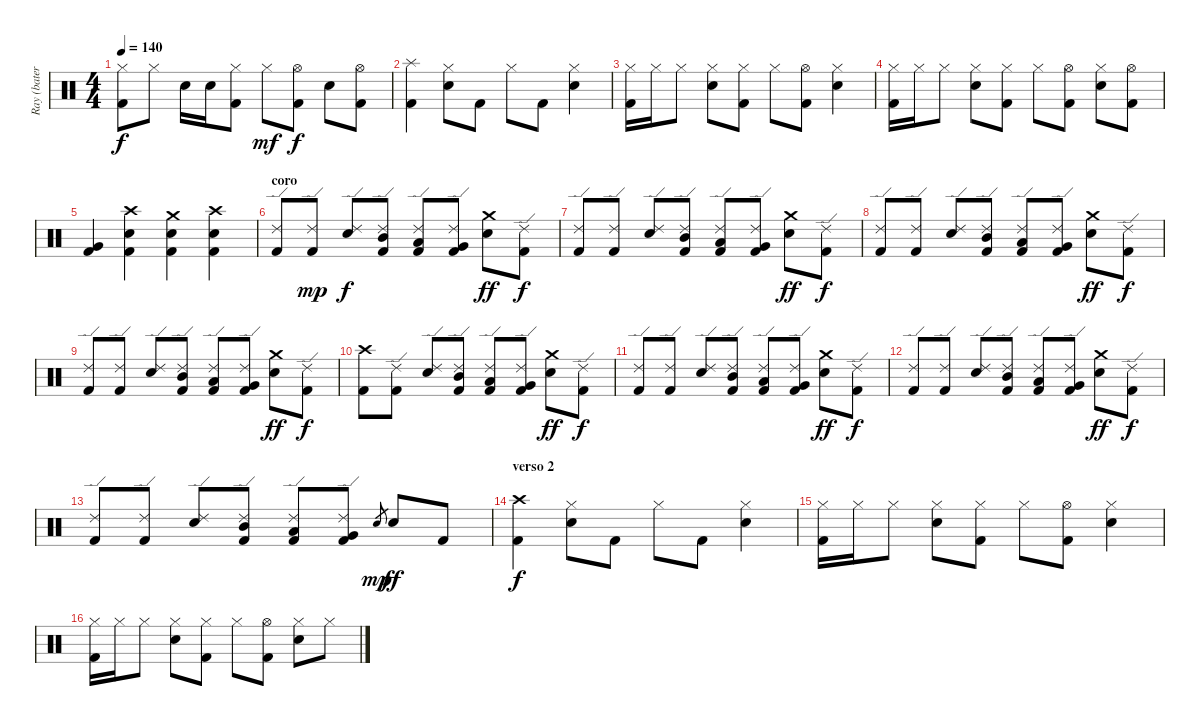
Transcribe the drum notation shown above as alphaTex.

\track ("Ray (batería)" "Ray (bater") {instrument percussion}
\staff {score}
\articulation defaults
\ts (4 4)
\tempo 140
\clef neutral
\ks c
("Hi-Hat (closed)" "Kick (hit) 2").8{dy f} "Hi-Hat (closed)".8 "Snare (hit) 2".16 "Snare (hit) 2".16 ("Hi-Hat (closed)" "Kick (hit) 2").8 "Hi-Hat (closed)".8{dy mf} ("Hi-Hat (open)" "Kick (hit) 2").8{dy f} "Snare (hit) 2".8 ("Hi-Hat (open)" "Kick (hit) 2").8 |
("Splash (hit)" "Kick (hit) 2").4 ("Hi-Hat (closed)" "Snare (hit) 2").8 "Kick (hit) 2".8 "Hi-Hat (closed)".8 "Kick (hit) 2".8 ("Hi-Hat (closed)" "Snare (hit) 2").4 |
("Hi-Hat (closed)" "Kick (hit) 2").16 "Hi-Hat (closed)".16 "Hi-Hat (closed)".8 ("Hi-Hat (closed)" "Snare (hit) 2").8 ("Hi-Hat (closed)" "Kick (hit) 2").8 "Hi-Hat (closed)".8 ("Hi-Hat (open)" "Kick (hit) 2").8 ("Hi-Hat (closed)" "Snare (hit) 2").4 |
("Hi-Hat (closed)" "Kick (hit) 2").16 "Hi-Hat (closed)".16 "Hi-Hat (closed)".8 ("Hi-Hat (closed)" "Snare (hit) 2").8 ("Hi-Hat (closed)" "Kick (hit) 2").8 "Hi-Hat (closed)".8 ("Hi-Hat (open)" "Kick (hit) 2").8 ("Hi-Hat (closed)" "Snare (hit) 2").8 ("Hi-Hat (open)" "Kick (hit) 2").8 |
("Very Low Tom (hit)" "Kick (hit) 2").4 ("Crash high (hit)" "Snare (hit) 2" "Kick (hit) 2").4 ("Crash medium (hit)" "Snare (hit) 2" "Kick (hit) 2").4 ("Crash high (hit)" "Snare (hit) 2" "Kick (hit) 2").4 |
\section ("" "coro")
("Ride (edge) 2" "Kick (hit) 2").8 ("Ride (edge) 2" "Kick (hit) 2").8{dy mp} ("Ride (edge) 2" "Snare (hit) 2").8{dy f} ("Ride (edge) 2" "Mid Tom (hit)" "Kick (hit) 2").8 ("Ride (edge) 2" "Low Tom (hit)" "Kick (hit) 2").8 ("Ride (edge) 2" "Very Low Tom (hit)" "Kick (hit) 2").8 ("Crash medium (hit)" "Snare (hit) 2").8{dy ff} ("Ride (edge) 2" "Kick (hit) 2").8{dy f} |
("Ride (edge) 2" "Kick (hit) 2").8 ("Ride (edge) 2" "Kick (hit) 2").8 ("Ride (edge) 2" "Snare (hit) 2").8 ("Ride (edge) 2" "Mid Tom (hit)" "Kick (hit) 2").8 ("Ride (edge) 2" "Low Tom (hit)" "Kick (hit) 2").8 ("Ride (edge) 2" "Very Low Tom (hit)" "Kick (hit) 2").8 ("Crash medium (hit)" "Snare (hit) 2").8{dy ff} ("Ride (edge) 2" "Kick (hit) 2").8{dy f} |
("Ride (edge) 2" "Kick (hit) 2").8 ("Ride (edge) 2" "Kick (hit) 2").8 ("Ride (edge) 2" "Snare (hit) 2").8 ("Ride (edge) 2" "Mid Tom (hit)" "Kick (hit) 2").8 ("Ride (edge) 2" "Low Tom (hit)" "Kick (hit) 2").8 ("Ride (edge) 2" "Very Low Tom (hit)" "Kick (hit) 2").8 ("Crash medium (hit)" "Snare (hit) 2").8{dy ff} ("Ride (edge) 2" "Kick (hit) 2").8{dy f} |
("Ride (edge) 2" "Kick (hit) 2").8 ("Ride (edge) 2" "Kick (hit) 2").8 ("Ride (edge) 2" "Snare (hit) 2").8 ("Ride (edge) 2" "Mid Tom (hit)" "Kick (hit) 2").8 ("Ride (edge) 2" "Low Tom (hit)" "Kick (hit) 2").8 ("Ride (edge) 2" "Very Low Tom (hit)" "Kick (hit) 2").8 ("Crash medium (hit)" "Snare (hit) 2").8{dy ff} ("Ride (edge) 2" "Kick (hit) 2").8{dy f} |
("Crash high (hit)" "Kick (hit) 2").8 ("Ride (edge) 2" "Kick (hit) 2").8 ("Ride (edge) 2" "Snare (hit) 2").8 ("Ride (edge) 2" "Mid Tom (hit)" "Kick (hit) 2").8 ("Ride (edge) 2" "Low Tom (hit)" "Kick (hit) 2").8 ("Ride (edge) 2" "Very Low Tom (hit)" "Kick (hit) 2").8 ("Crash medium (hit)" "Snare (hit) 2").8{dy ff} ("Ride (edge) 2" "Kick (hit) 2").8{dy f} |
("Ride (edge) 2" "Kick (hit) 2").8 ("Ride (edge) 2" "Kick (hit) 2").8 ("Ride (edge) 2" "Snare (hit) 2").8 ("Ride (edge) 2" "Mid Tom (hit)" "Kick (hit) 2").8 ("Ride (edge) 2" "Low Tom (hit)" "Kick (hit) 2").8 ("Ride (edge) 2" "Very Low Tom (hit)" "Kick (hit) 2").8 ("Crash medium (hit)" "Snare (hit) 2").8{dy ff} ("Ride (edge) 2" "Kick (hit) 2").8{dy f} |
("Ride (edge) 2" "Kick (hit) 2").8 ("Ride (edge) 2" "Kick (hit) 2").8 ("Ride (edge) 2" "Snare (hit) 2").8 ("Ride (edge) 2" "Mid Tom (hit)" "Kick (hit) 2").8 ("Ride (edge) 2" "Low Tom (hit)" "Kick (hit) 2").8 ("Ride (edge) 2" "Very Low Tom (hit)" "Kick (hit) 2").8 ("Crash medium (hit)" "Snare (hit) 2").8{dy ff} ("Ride (edge) 2" "Kick (hit) 2").8{dy f} |
("Ride (edge) 2" "Kick (hit) 2").8 ("Ride (edge) 2" "Kick (hit) 2").8 ("Ride (edge) 2" "Snare (hit) 2").8 ("Ride (edge) 2" "Mid Tom (hit)" "Kick (hit) 2").8 ("Ride (edge) 2" "Low Tom (hit)" "Kick (hit) 2").8 ("Ride (edge) 2" "Very Low Tom (hit)" "Kick (hit) 2").8 "Snare (hit) 2".8{gr dy mp} "Snare (hit) 2".8{dy ff} "Kick (hit) 2".8 |
\section ("" "verso 2")
("Crash high (hit)" "Kick (hit) 2").4{dy f} ("Hi-Hat (closed)" "Snare (hit) 2").8 "Kick (hit) 2".8 "Hi-Hat (closed)".8 "Kick (hit) 2".8 ("Hi-Hat (closed)" "Snare (hit) 2").4 |
("Hi-Hat (closed)" "Kick (hit) 2").16 "Hi-Hat (closed)".16 "Hi-Hat (closed)".8 ("Hi-Hat (closed)" "Snare (hit) 2").8 ("Hi-Hat (closed)" "Kick (hit) 2").8 "Hi-Hat (closed)".8 ("Hi-Hat (open)" "Kick (hit) 2").8 ("Hi-Hat (closed)" "Snare (hit) 2").4 |
("Hi-Hat (closed)" "Kick (hit) 2").16 "Hi-Hat (closed)".16 "Hi-Hat (closed)".8 ("Hi-Hat (closed)" "Snare (hit) 2").8 ("Hi-Hat (closed)" "Kick (hit) 2").8 "Hi-Hat (closed)".8 ("Hi-Hat (open)" "Kick (hit) 2").8 ("Hi-Hat (closed)" "Snare (hit) 2").8 "Hi-Hat (closed)".8
